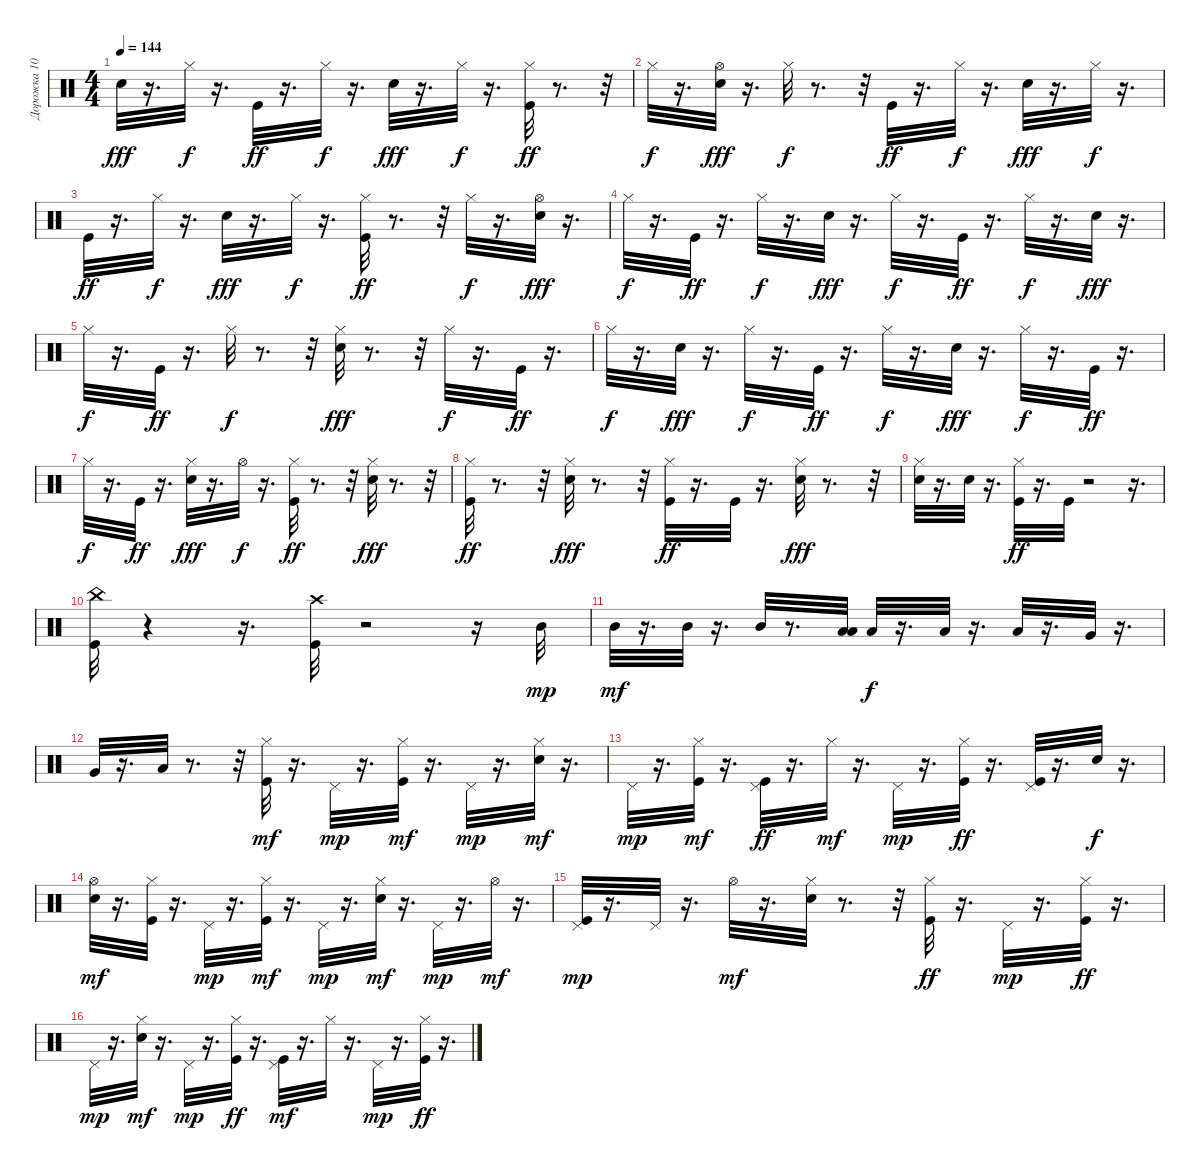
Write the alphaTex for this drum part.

\track ("Дорожка 10" "Дорожка 10") {instrument percussion}
\staff {score}
\articulation defaults
\ts (4 4)
\tempo 144
\clef neutral
\ks c "Electric Snare (hit)".32{dy fff}
r.16{d} "Hi-Hat (closed)".32{dy f} r.16{d} "Kick (hit)".32{dy ff} r.16{d} "Hi-Hat (closed)".32{dy f} r.16{d} "Electric Snare (hit)".32{dy fff} r.16{d} "Hi-Hat (closed)".32{dy f} r.16{d} ("Hi-Hat (closed)" "Kick (hit)").32{dy ff} r.8{d} r.32 |
"Hi-Hat (closed)".32{dy f} r.16{d} ("Electric Snare (hit)" "Hi-Hat (open)").32{dy fff} r.16{d} "Hi-Hat (closed)".32{dy f} r.8{d} r.32 "Kick (hit)".32{dy ff} r.16{d} "Hi-Hat (closed)".32{dy f} r.16{d} "Electric Snare (hit)".32{dy fff} r.16{d} "Hi-Hat (closed)".32{dy f} r.16{d} |
"Kick (hit)".32{dy ff} r.16{d} "Hi-Hat (closed)".32{dy f} r.16{d} "Electric Snare (hit)".32{dy fff} r.16{d} "Hi-Hat (closed)".32{dy f} r.16{d} ("Hi-Hat (closed)" "Kick (hit)").32{dy ff} r.8{d} r.32 "Hi-Hat (closed)".32{dy f} r.16{d} ("Electric Snare (hit)" "Hi-Hat (open)").32{dy fff} r.16{d} |
"Hi-Hat (closed)".32{dy f} r.16{d} "Kick (hit)".32{dy ff} r.16{d} "Hi-Hat (closed)".32{dy f} r.16{d} "Electric Snare (hit)".32{dy fff} r.16{d} "Hi-Hat (closed)".32{dy f} r.16{d} "Kick (hit)".32{dy ff} r.16{d} "Hi-Hat (closed)".32{dy f} r.16{d} "Electric Snare (hit)".32{dy fff} r.16{d} |
"Hi-Hat (closed)".32{dy f} r.16{d} "Kick (hit)".32{dy ff} r.16{d} "Hi-Hat (closed)".32{dy f} r.8{d} r.32 ("Hi-Hat (closed)" "Electric Snare (hit)").32{dy fff} r.8{d} r.32 "Hi-Hat (closed)".32{dy f} r.16{d} "Kick (hit)".32{dy ff} r.16{d} |
"Hi-Hat (closed)".32{dy f} r.16{d} "Electric Snare (hit)".32{dy fff} r.16{d} "Hi-Hat (closed)".32{dy f} r.16{d} "Kick (hit)".32{dy ff} r.16{d} "Hi-Hat (closed)".32{dy f} r.16{d} "Electric Snare (hit)".32{dy fff} r.16{d} "Hi-Hat (closed)".32{dy f} r.16{d} "Kick (hit)".32{dy ff} r.16{d} |
"Hi-Hat (closed)".32{dy f} r.16{d} "Kick (hit)".32{dy ff} r.16{d} ("Electric Snare (hit)" "Hi-Hat (closed)").32{dy fff} r.16{d} "Hi-Hat (open)".32{dy f} r.16{d} ("Hi-Hat (closed)" "Kick (hit)").32{dy ff} r.8{d} r.32 ("Electric Snare (hit)" "Hi-Hat (closed)").32{dy fff} r.8{d} r.32 |
("Hi-Hat (closed)" "Kick (hit)").32{dy ff} r.8{d} r.32 ("Electric Snare (hit)" "Hi-Hat (closed)").32{dy fff} r.8{d} r.32 ("Kick (hit)" "Hi-Hat (closed)").32{dy ff} r.16{d} "Kick (hit)".32 r.16{d} ("Electric Snare (hit)" "Hi-Hat (closed)").32{dy fff} r.8{d} r.32 |
("Hi-Hat (closed)" "Electric Snare (hit)").32 r.16{d} "Electric Snare (hit)".32 r.16{d} ("Hi-Hat (closed)" "Kick (hit)").32{dy ff} r.16{d} "Kick (hit)".32 r.2 r.16{d} |
("Kick (hit)" "China (hit)").32 r.4 r.16{d} ("Crash high (hit)" "Kick (hit)").32 r.2 r.16 "Mid Tom (hit)".32{dy mp} |
"Mid Tom (hit)".32{dy mf} r.16{d} "Mid Tom (hit)".32 r.16{d} "Mid Tom (hit)".32 r.8{d} ("Low Tom (hit)" "Low Tom (hit)").32 "Low Tom (hit)".32{dy f} r.16{d} "Low Tom (hit)".32 r.16{d} "Low Tom (hit)".32 r.16{d} "Very Low Tom (hit)".32 r.16{d} |
"Very Low Tom (hit)".32 r.16{d} "Low Floor Tom (hit)".32 r.8{d} r.32 ("Kick (hit)" "Hi-Hat (closed)").32{dy mf} r.16{d} "Pedal Hi-Hat (hit)".32{dy mp} r.16{d} ("Kick (hit)" "Hi-Hat (closed)").32{dy mf} r.16{d} "Pedal Hi-Hat (hit)".32{dy mp} r.16{d} ("Hi-Hat (closed)" "Electric Snare (hit)").32{dy mf} r.16{d} |
"Pedal Hi-Hat (hit)".32{dy mp} r.16{d} ("Kick (hit)" "Hi-Hat (closed)").32{dy mf} r.16{d} ("Pedal Hi-Hat (hit)" "Kick (hit)").32{dy ff} r.16{d} "Hi-Hat (closed)".32{dy mf} r.16{d} "Pedal Hi-Hat (hit)".32{dy mp} r.16{d} ("Hi-Hat (closed)" "Kick (hit)").32{dy ff} r.16{d} ("Pedal Hi-Hat (hit)" "Kick (hit)").32 r.16{d} "Electric Snare (hit)".32{dy f} r.16{d} |
("Electric Snare (hit)" "Hi-Hat (open)").32{dy mf} r.16{d} ("Kick (hit)" "Hi-Hat (closed)").32 r.16{d} "Pedal Hi-Hat (hit)".32{dy mp} r.16{d} ("Kick (hit)" "Hi-Hat (closed)").32{dy mf} r.16{d} "Pedal Hi-Hat (hit)".32{dy mp} r.16{d} ("Electric Snare (hit)" "Hi-Hat (closed)").32{dy mf} r.16{d} "Pedal Hi-Hat (hit)".32{dy mp} r.16{d} "Hi-Hat (open)".32{dy mf} r.16{d} |
("Kick (hit)" "Pedal Hi-Hat (hit)").32{dy mp} r.16{d} "Pedal Hi-Hat (hit)".32 r.16{d} "Hi-Hat (open)".32{dy mf} r.16{d} ("Electric Snare (hit)" "Hi-Hat (closed)").32 r.8{d} r.32 ("Hi-Hat (closed)" "Kick (hit)").32{dy ff} r.16{d} "Pedal Hi-Hat (hit)".32{dy mp} r.16{d} ("Hi-Hat (closed)" "Kick (hit)").32{dy ff} r.16{d} |
"Pedal Hi-Hat (hit)".32{dy mp} r.16{d} ("Hi-Hat (closed)" "Electric Snare (hit)").32{dy mf} r.16{d} "Pedal Hi-Hat (hit)".32{dy mp} r.16{d} ("Hi-Hat (closed)" "Kick (hit)").32{dy ff} r.16{d} ("Kick (hit)" "Pedal Hi-Hat (hit)").32{dy mf} r.16{d} "Hi-Hat (closed)".32 r.16{d} "Pedal Hi-Hat (hit)".32{dy mp} r.16{d} ("Hi-Hat (closed)" "Kick (hit)").32{dy ff} r.16{d}
